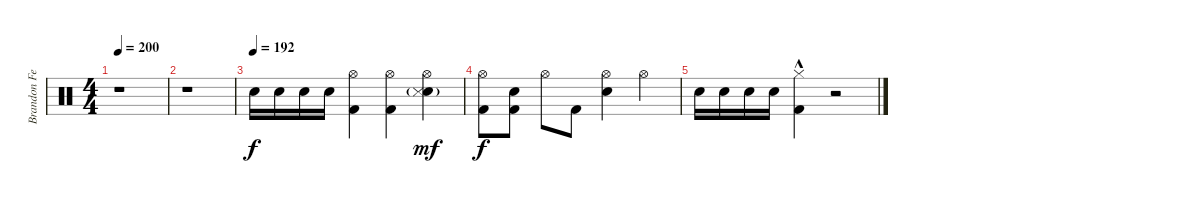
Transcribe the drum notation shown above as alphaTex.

\track ("Brandon Ferrell (Drums)" "Brandon Fe") {instrument percussion}
\staff {score}
\articulation defaults
\ts (4 4)
\tempo 200
\clef neutral
\ks c
r.1{dy f} |
r.1 |
\tempo (192)
"Electric Snare (hit)".16 "Electric Snare (hit)".16 "Electric Snare (hit)".16 "Electric Snare (hit)".16 ("Hi-Hat (open)" "Kick (hit) 2").4 ("Hi-Hat (open)" "Kick (hit) 2").4 ("Hi-Hat (open)" "Electric Snare (hit)"{g} "Snare (side stick) 3").4{dy mf} |
("Hi-Hat (open)" "Kick (hit) 2").8{dy f} ("Electric Snare (hit)" "Kick (hit) 2").8 "Hi-Hat (open)".8 "Kick (hit) 2".8 ("Hi-Hat (open)" "Electric Snare (hit)").4 "Hi-Hat (open)".4 |
"Electric Snare (hit)".16 "Electric Snare (hit)".16 "Electric Snare (hit)".16 "Electric Snare (hit)".16 ("Hi-Hat (closed)"{hac} "Kick (hit) 2").4 r.2
